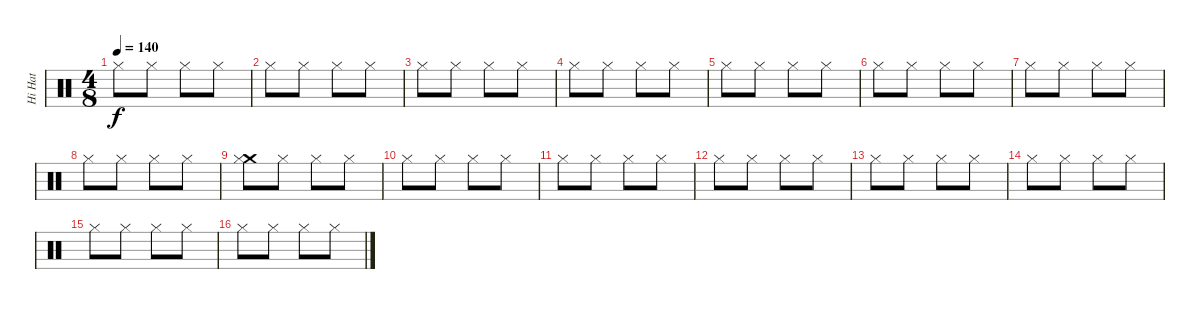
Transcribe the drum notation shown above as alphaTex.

\track ("Hi Hat" "Hi Hat") {instrument percussion}
\staff {score}
\articulation defaults
\ts (4 8)
\tempo 140
\clef neutral
\ks c "Hi-Hat (closed)".8{dy f} "Hi-Hat (closed)".8 "Hi-Hat (closed)".8 "Hi-Hat (closed)".8
|
"Hi-Hat (closed)".8 "Hi-Hat (closed)".8 "Hi-Hat (closed)".8 "Hi-Hat (closed)".8 |
"Hi-Hat (closed)".8 "Hi-Hat (closed)".8 "Hi-Hat (closed)".8 "Hi-Hat (closed)".8 |
"Hi-Hat (closed)".8 "Hi-Hat (closed)".8 "Hi-Hat (closed)".8 "Hi-Hat (closed)".8 |
"Hi-Hat (closed)".8 "Hi-Hat (closed)".8 "Hi-Hat (closed)".8 "Hi-Hat (closed)".8 |
"Hi-Hat (closed)".8 "Hi-Hat (closed)".8 "Hi-Hat (closed)".8 "Hi-Hat (closed)".8 |
"Hi-Hat (closed)".8 "Hi-Hat (closed)".8 "Hi-Hat (closed)".8 "Hi-Hat (closed)".8 |
"Hi-Hat (closed)".8 "Hi-Hat (closed)".8 "Hi-Hat (closed)".8 "Hi-Hat (closed)".8 |
("Crash medium (hit)" "Hi-Hat (closed)").8 "Hi-Hat (closed)".8 "Hi-Hat (closed)".8 "Hi-Hat (closed)".8 |
"Hi-Hat (closed)".8 "Hi-Hat (closed)".8 "Hi-Hat (closed)".8 "Hi-Hat (closed)".8 |
"Hi-Hat (closed)".8 "Hi-Hat (closed)".8 "Hi-Hat (closed)".8 "Hi-Hat (closed)".8 |
"Hi-Hat (closed)".8 "Hi-Hat (closed)".8 "Hi-Hat (closed)".8 "Hi-Hat (closed)".8 |
"Hi-Hat (closed)".8 "Hi-Hat (closed)".8 "Hi-Hat (closed)".8 "Hi-Hat (closed)".8 |
"Hi-Hat (closed)".8 "Hi-Hat (closed)".8 "Hi-Hat (closed)".8 "Hi-Hat (closed)".8 |
"Hi-Hat (closed)".8 "Hi-Hat (closed)".8 "Hi-Hat (closed)".8 "Hi-Hat (closed)".8 |
"Hi-Hat (closed)".8 "Hi-Hat (closed)".8 "Hi-Hat (closed)".8 "Hi-Hat (closed)".8
